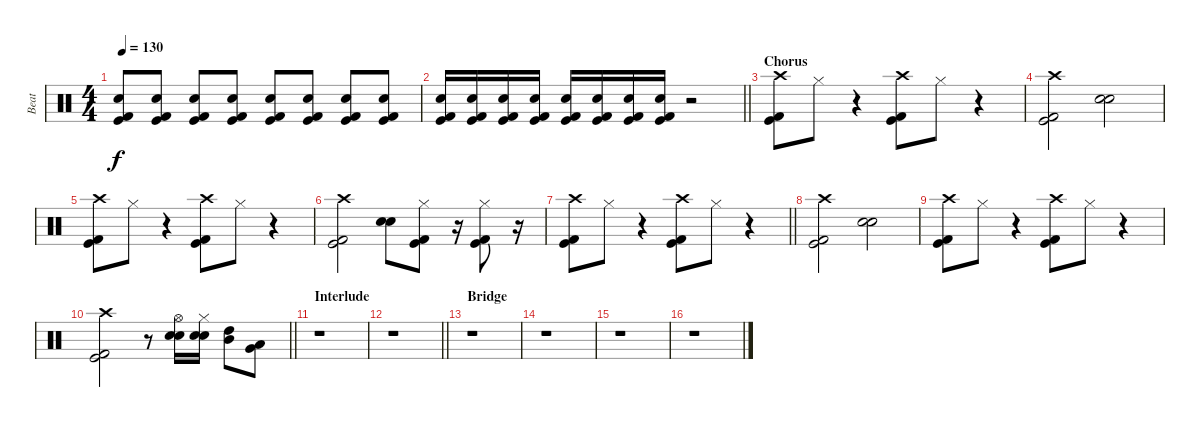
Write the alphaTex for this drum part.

\track ("Beat" "Beat") {instrument percussion}
\staff {score}
\articulation defaults
\ts (4 4)
\tempo 130
\clef neutral
\ks c
("Hand Clap (hit)" "Kick (hit)" "Kick (hit) 2").8{dy f} ("Hand Clap (hit)" "Kick (hit)" "Kick (hit) 2").8 ("Hand Clap (hit)" "Kick (hit)" "Kick (hit) 2").8 ("Hand Clap (hit)" "Kick (hit)" "Kick (hit) 2").8 ("Hand Clap (hit)" "Kick (hit)" "Kick (hit) 2").8 ("Hand Clap (hit)" "Kick (hit)" "Kick (hit) 2").8 ("Hand Clap (hit)" "Kick (hit)" "Kick (hit) 2").8 ("Hand Clap (hit)" "Kick (hit)" "Kick (hit) 2").8 |
\barLineRight lightlight
("Hand Clap (hit)" "Kick (hit)" "Kick (hit) 2").16 ("Hand Clap (hit)" "Kick (hit)" "Kick (hit) 2").16 ("Hand Clap (hit)" "Kick (hit)" "Kick (hit) 2").16 ("Hand Clap (hit)" "Kick (hit)" "Kick (hit) 2").16 ("Hand Clap (hit)" "Kick (hit)" "Kick (hit) 2").16 ("Hand Clap (hit)" "Kick (hit)" "Kick (hit) 2").16 ("Hand Clap (hit)" "Kick (hit)" "Kick (hit) 2").16 ("Hand Clap (hit)" "Kick (hit)" "Kick (hit) 2").16 r.2 |
\section ("" "Chorus")
("Crash high (hit)" "Kick (hit)" "Kick (hit) 2").8 "Hi-Hat (closed)".8 r.4 ("Crash high (hit)" "Kick (hit)" "Kick (hit) 2").8 "Hi-Hat (closed)".8 r.4 |
("Crash high (hit)" "Kick (hit)" "Kick (hit) 2").2 ("Hand Clap (hit)" "Snare (hit) 2").2 |
("Crash high (hit)" "Kick (hit)" "Kick (hit) 2").8 "Hi-Hat (closed)".8 r.4 ("Crash high (hit)" "Kick (hit)" "Kick (hit) 2").8 "Hi-Hat (closed)".8 r.4 |
("Crash high (hit)" "Kick (hit)" "Kick (hit) 2").2 ("Hand Clap (hit)" "Snare (hit) 2").8 ("Hi-Hat (closed)" "Kick (hit)" "Kick (hit) 2").8 r.16 ("Hi-Hat (closed)" "Kick (hit)" "Kick (hit) 2").8 r.16 |
\barLineRight lightlight
("Crash high (hit)" "Kick (hit)" "Kick (hit) 2").8 "Hi-Hat (closed)".8 r.4 ("Crash high (hit)" "Kick (hit)" "Kick (hit) 2").8 "Hi-Hat (closed)".8 r.4 |
("Crash high (hit)" "Kick (hit)" "Kick (hit) 2").2 ("Hand Clap (hit)" "Snare (hit) 2").2 |
("Crash high (hit)" "Kick (hit)" "Kick (hit) 2").8 "Hi-Hat (closed)".8 r.4 ("Crash high (hit)" "Kick (hit)" "Kick (hit) 2").8 "Hi-Hat (closed)".8 r.4 |
\barLineRight lightlight
("Crash high (hit)" "Kick (hit)" "Kick (hit) 2").2 r.8 ("Hi-Hat (open)" "Hand Clap (hit)" "Snare (hit) 2").16 ("Hi-Hat (closed)" "Hand Clap (hit)" "Snare (hit) 2").16 ("High Tom (hit)" "Mid Tom (hit)").8 ("Low Tom (hit)" "Very Low Tom (hit)").8 |
\section ("" "Interlude")
r.1 |
\barLineRight lightlight
r.1 |
\section ("" "Bridge")
r.1 |
r.1 |
r.1 |
r.1
